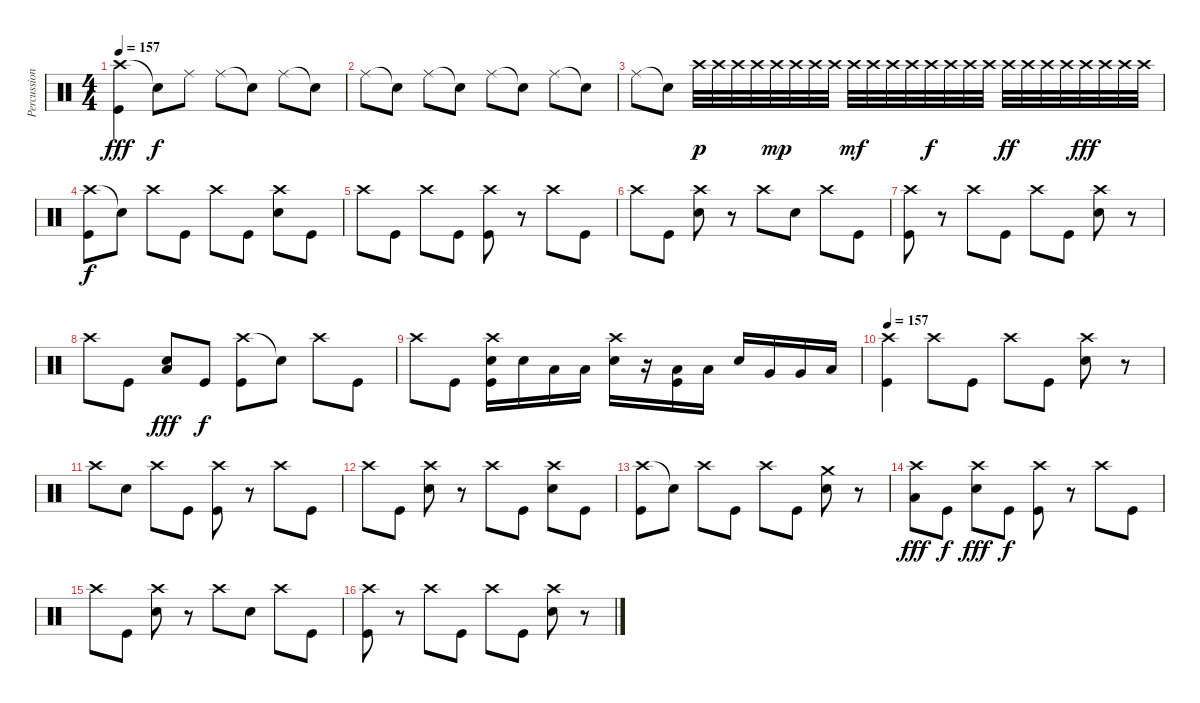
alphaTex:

\track ("Percussion" "Percussion") {instrument percussion}
\staff {score}
\articulation defaults
\ts (4 4)
\tempo 157
\clef neutral
\ks c
("Crash high (hit)" "Kick (hit)").4{dy fff} "Snare (hit)"{t}.8{dy f} "Ride (middle)".8 "Ride (middle)".8 "Snare (hit)"{t}.8 "Ride (middle)".8 "Snare (hit)"{t}.8 |
"Ride (middle)".8 "Snare (hit)"{t}.8 "Ride (middle)".8 "Snare (hit)"{t}.8 "Ride (middle)".8 "Snare (hit)"{t}.8 "Ride (middle)".8 "Snare (hit)"{t}.8 |
"Ride (middle)".8 "Snare (hit)"{t}.8 "Crash high (hit)".32{dy p} "Crash high (hit)".32 "Crash high (hit)".32 "Crash high (hit)".32 "Crash high (hit)".32{dy mp} "Crash high (hit)".32 "Crash high (hit)".32 "Crash high (hit)".32 "Crash high (hit)".32{dy mf} "Crash high (hit)".32 "Crash high (hit)".32 "Crash high (hit)".32 "Crash high (hit)".32{dy f} "Crash high (hit)".32 "Crash high (hit)".32 "Crash high (hit)".32 "Crash high (hit)".32{dy ff} "Crash high (hit)".32 "Crash high (hit)".32 "Crash high (hit)".32 "Crash high (hit)".32{dy fff} "Crash high (hit)".32 "Crash high (hit)".32 "Crash high (hit)".32 |
("Crash high (hit)" "Kick (hit)").8{dy f} "Snare (hit)"{t}.8 "Crash high (hit)".8 "Kick (hit)".8 "Crash high (hit)".8 "Kick (hit)".8 ("Crash high (hit)" "Electric Snare (hit)").8 "Kick (hit)".8 |
"Crash high (hit)".8 "Kick (hit)".8 "Crash high (hit)".8 "Kick (hit)".8 ("Crash high (hit)" "Kick (hit)").8 r.8 "Crash high (hit)".8 "Kick (hit)".8 |
"Crash high (hit)".8 "Kick (hit)".8 ("Crash high (hit)" "Electric Snare (hit)").8 r.8 "Crash high (hit)".8 "Electric Snare (hit)".8 "Crash high (hit)".8 "Kick (hit)".8 |
("Crash high (hit)" "Kick (hit)").8 r.8 "Crash high (hit)".8 "Kick (hit)".8 "Crash high (hit)".8 "Kick (hit)".8 ("Crash high (hit)" "Electric Snare (hit)").8 r.8 |
"Crash high (hit)".8 "Kick (hit)".8 ("Low Floor Tom (hit)" "Electric Snare (hit)").8{dy fff} "Kick (hit)".8{dy f} ("Crash high (hit)" "Kick (hit)").8 "Snare (hit)"{t}.8 "Crash high (hit)".8 "Kick (hit)".8 |
"Crash high (hit)".8 "Kick (hit)".8 ("Crash high (hit)" "Electric Snare (hit)" "Kick (hit)").16 "Electric Snare (hit)".16 "Low Tom (hit)".16 "Low Tom (hit)".16 ("Crash high (hit)" "Electric Snare (hit)").16 r.16 ("Low Tom (hit)" "Kick (hit)").16 "Low Tom (hit)".16 "Electric Snare (hit)".16 "Very Low Tom (hit)".16 "Very Low Tom (hit)".16 "Low Floor Tom (hit)".16 |
\tempo 157
("Crash high (hit)" "Kick (hit)").4 "Crash high (hit)".8 "Kick (hit)".8 "Crash high (hit)".8 "Kick (hit)".8 ("Crash high (hit)" "Electric Snare (hit)").8 r.8 |
"Crash high (hit)".8 "Electric Snare (hit)".8 "Crash high (hit)".8 "Kick (hit)".8 ("Crash high (hit)" "Kick (hit)").8 r.8 "Crash high (hit)".8 "Kick (hit)".8 |
"Crash high (hit)".8 "Kick (hit)".8 ("Crash high (hit)" "Electric Snare (hit)").8 r.8 "Crash high (hit)".8 "Kick (hit)".8 ("Crash high (hit)" "Electric Snare (hit)").8 "Kick (hit)".8 |
("Crash high (hit)" "Kick (hit)").8 "Snare (hit)"{t}.8 "Crash high (hit)".8 "Kick (hit)".8 "Crash high (hit)".8 "Kick (hit)".8 ("Crash medium (hit)" "Electric Snare (hit)").8 r.8 |
("Crash high (hit)" "Low Floor Tom (hit)").8{dy fff} "Kick (hit)".8{dy f} ("Crash high (hit)" "Electric Snare (hit)").8{dy fff} "Kick (hit)".8{dy f} ("Crash high (hit)" "Kick (hit)").8 r.8 "Crash high (hit)".8 "Kick (hit)".8 |
"Crash high (hit)".8 "Kick (hit)".8 ("Crash high (hit)" "Electric Snare (hit)").8 r.8 "Crash high (hit)".8 "Electric Snare (hit)".8 "Crash high (hit)".8 "Kick (hit)".8 |
("Crash high (hit)" "Kick (hit)").8 r.8 "Crash high (hit)".8 "Kick (hit)".8 "Crash high (hit)".8 "Kick (hit)".8 ("Crash high (hit)" "Electric Snare (hit)").8 r.8
